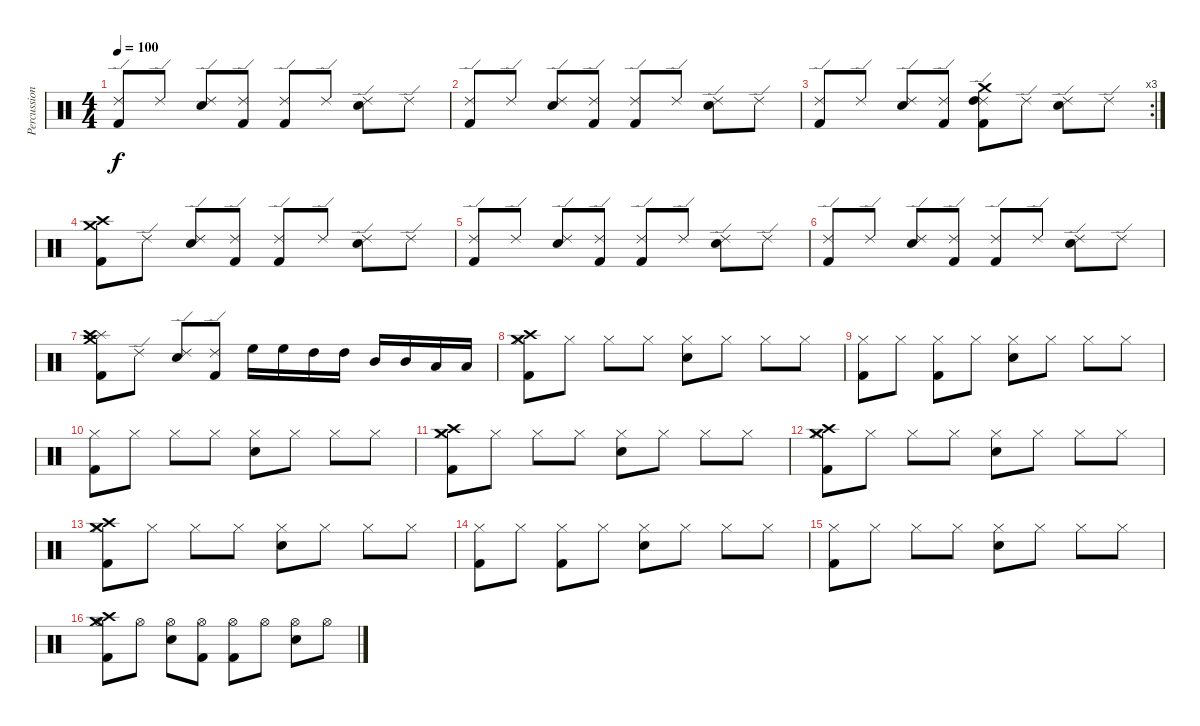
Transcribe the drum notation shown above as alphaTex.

\track ("Percussion" "Percussion") {instrument percussion}
\staff {score}
\articulation defaults
\ts (4 4)
\tempo 100
\clef neutral
\ks c
("Ride (edge) 2" "Kick (hit) 2").8{dy f} "Ride (edge) 2".8 ("Ride (edge) 2" "Electric Snare (hit)").8 ("Ride (edge) 2" "Kick (hit) 2").8 ("Ride (edge) 2" "Kick (hit) 2").8 "Ride (edge) 2".8 ("Ride (edge) 2" "Electric Snare (hit)").8 "Ride (edge) 2".8 |
("Ride (edge) 2" "Kick (hit) 2").8 "Ride (edge) 2".8 ("Ride (edge) 2" "Electric Snare (hit)").8 ("Ride (edge) 2" "Kick (hit) 2").8 ("Ride (edge) 2" "Kick (hit) 2").8 "Ride (edge) 2".8 ("Ride (edge) 2" "Electric Snare (hit)").8 "Ride (edge) 2".8 |
\rc 3
("Ride (edge) 2" "Kick (hit) 2").8 "Ride (edge) 2".8 ("Ride (edge) 2" "Electric Snare (hit)").8 ("Ride (edge) 2" "Kick (hit) 2").8 ("Ride (edge) 2" "Kick (hit) 2" "Crash medium (hit)" "High Tom (hit)").8 "Ride (edge) 2".8 ("Ride (edge) 2" "Electric Snare (hit)").8 "Ride (edge) 2".8 |
("Crash high (hit)" "Crash medium (hit)" "Kick (hit) 2").8 "Ride (edge) 2".8 ("Ride (edge) 2" "Electric Snare (hit)").8 ("Ride (edge) 2" "Kick (hit) 2").8 ("Ride (edge) 2" "Kick (hit) 2").8 "Ride (edge) 2".8 ("Ride (edge) 2" "Electric Snare (hit)").8 "Ride (edge) 2".8 |
("Ride (edge) 2" "Kick (hit) 2").8 "Ride (edge) 2".8 ("Ride (edge) 2" "Electric Snare (hit)").8 ("Ride (edge) 2" "Kick (hit) 2").8 ("Ride (edge) 2" "Kick (hit) 2").8 "Ride (edge) 2".8 ("Ride (edge) 2" "Electric Snare (hit)").8 "Ride (edge) 2".8 |
("Ride (edge) 2" "Kick (hit) 2").8 "Ride (edge) 2".8 ("Ride (edge) 2" "Electric Snare (hit)").8 ("Ride (edge) 2" "Kick (hit) 2").8 ("Ride (edge) 2" "Kick (hit) 2").8 "Ride (edge) 2".8 ("Ride (edge) 2" "Electric Snare (hit)").8 "Ride (edge) 2".8 |
("Splash (hit)" "Crash high (hit)" "Crash medium (hit)" "Kick (hit) 2").8 "Ride (edge) 2".8 ("Ride (edge) 2" "Electric Snare (hit)").8 ("Ride (edge) 2" "Kick (hit) 2").8 "High Floor Tom (hit)".16 "High Floor Tom (hit)".16 "High Tom (hit)".16 "High Tom (hit)".16 "Mid Tom (hit)".16 "Mid Tom (hit)".16 "Low Tom (hit)".16 "Low Tom (hit)".16 |
("Hi-Hat (closed)" "Crash medium (hit)" "Crash high (hit)" "Kick (hit) 2").8 "Hi-Hat (closed)".8 "Hi-Hat (closed)".8 "Hi-Hat (closed)".8 ("Hi-Hat (closed)" "Electric Snare (hit)").8 "Hi-Hat (closed)".8 "Hi-Hat (closed)".8 "Hi-Hat (closed)".8 |
("Hi-Hat (closed)" "Kick (hit) 2").8 "Hi-Hat (closed)".8 ("Hi-Hat (closed)" "Kick (hit) 2").8 "Hi-Hat (closed)".8 ("Hi-Hat (closed)" "Electric Snare (hit)").8 "Hi-Hat (closed)".8 "Hi-Hat (closed)".8 "Hi-Hat (closed)".8 |
("Hi-Hat (closed)" "Kick (hit) 2").8 "Hi-Hat (closed)".8 "Hi-Hat (closed)".8 "Hi-Hat (closed)".8 ("Hi-Hat (closed)" "Electric Snare (hit)").8 "Hi-Hat (closed)".8 "Hi-Hat (closed)".8 "Hi-Hat (closed)".8 |
("Hi-Hat (closed)" "Crash medium (hit)" "Crash high (hit)" "Kick (hit) 2").8 "Hi-Hat (closed)".8 "Hi-Hat (closed)".8 "Hi-Hat (closed)".8 ("Hi-Hat (closed)" "Electric Snare (hit)").8 "Hi-Hat (closed)".8 "Hi-Hat (closed)".8 "Hi-Hat (closed)".8 |
("Hi-Hat (closed)" "Crash medium (hit)" "Crash high (hit)" "Kick (hit) 2").8 "Hi-Hat (closed)".8 "Hi-Hat (closed)".8 "Hi-Hat (closed)".8 ("Hi-Hat (closed)" "Electric Snare (hit)").8 "Hi-Hat (closed)".8 "Hi-Hat (closed)".8 "Hi-Hat (closed)".8 |
("Hi-Hat (closed)" "Crash medium (hit)" "Crash high (hit)" "Kick (hit) 2").8 "Hi-Hat (closed)".8 "Hi-Hat (closed)".8 "Hi-Hat (closed)".8 ("Hi-Hat (closed)" "Electric Snare (hit)").8 "Hi-Hat (closed)".8 "Hi-Hat (closed)".8 "Hi-Hat (closed)".8 |
("Hi-Hat (closed)" "Kick (hit) 2").8 "Hi-Hat (closed)".8 ("Hi-Hat (closed)" "Kick (hit) 2").8 "Hi-Hat (closed)".8 ("Hi-Hat (closed)" "Electric Snare (hit)").8 "Hi-Hat (closed)".8 "Hi-Hat (closed)".8 "Hi-Hat (closed)".8 |
("Hi-Hat (closed)" "Kick (hit) 2").8 "Hi-Hat (closed)".8 "Hi-Hat (closed)".8 "Hi-Hat (closed)".8 ("Hi-Hat (closed)" "Electric Snare (hit)").8 "Hi-Hat (closed)".8 "Hi-Hat (closed)".8 "Hi-Hat (closed)".8 |
("Crash high (hit)" "Crash medium (hit)" "Kick (hit) 2" "Hi-Hat (open)").8 "Hi-Hat (open)".8 ("Hi-Hat (open)" "Electric Snare (hit)").8 ("Hi-Hat (open)" "Kick (hit) 2").8 ("Hi-Hat (open)" "Kick (hit) 2").8 "Hi-Hat (open)".8 ("Hi-Hat (open)" "Electric Snare (hit)").8 "Hi-Hat (open)".8
